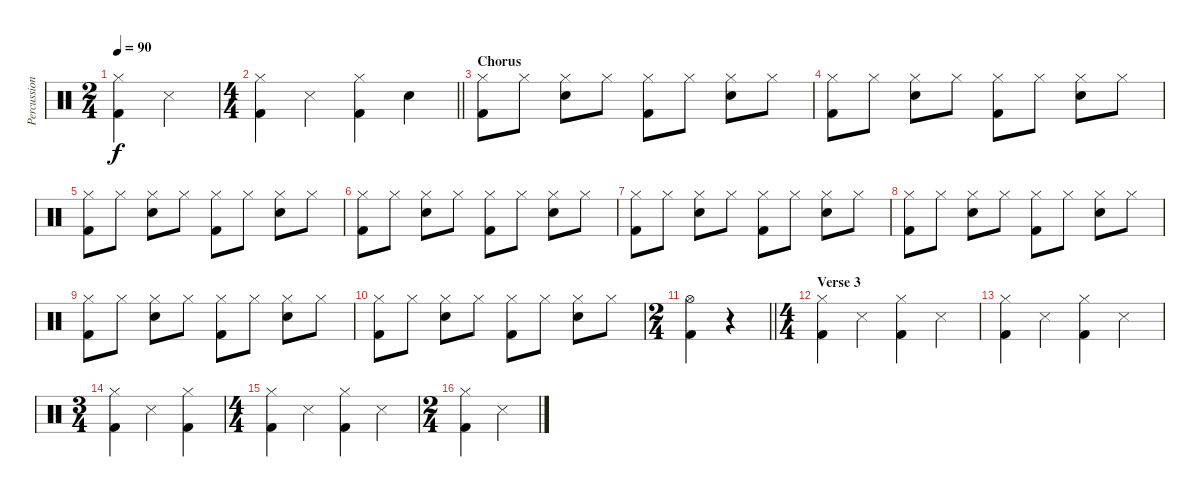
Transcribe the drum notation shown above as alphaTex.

\track ("Percussion" "Percussion") {instrument percussion}
\staff {score}
\articulation defaults
\ts (2 4)
\tempo 90
\clef neutral
\ks c
("Hi-Hat (closed)" "Kick (hit) 2").4{dy f} "Snare (side stick) 3".4 |
\ts (4 4)
\barLineRight lightlight
("Hi-Hat (closed)" "Kick (hit) 2").4 "Snare (side stick) 3".4 ("Hi-Hat (closed)" "Kick (hit) 2").4 "Snare (hit) 2".4 |
\section ("" "Chorus")
("Hi-Hat (closed)" "Kick (hit) 2").8 "Hi-Hat (closed)".8 ("Hi-Hat (closed)" "Snare (hit) 2").8 "Hi-Hat (closed)".8 ("Hi-Hat (closed)" "Kick (hit) 2").8 "Hi-Hat (closed)".8 ("Hi-Hat (closed)" "Snare (hit) 2").8 "Hi-Hat (closed)".8 |
("Hi-Hat (closed)" "Kick (hit) 2").8 "Hi-Hat (closed)".8 ("Hi-Hat (closed)" "Snare (hit) 2").8 "Hi-Hat (closed)".8 ("Hi-Hat (closed)" "Kick (hit) 2").8 "Hi-Hat (closed)".8 ("Hi-Hat (closed)" "Snare (hit) 2").8 "Hi-Hat (closed)".8 |
("Hi-Hat (closed)" "Kick (hit) 2").8 "Hi-Hat (closed)".8 ("Hi-Hat (closed)" "Snare (hit) 2").8 "Hi-Hat (closed)".8 ("Hi-Hat (closed)" "Kick (hit) 2").8 "Hi-Hat (closed)".8 ("Hi-Hat (closed)" "Snare (hit) 2").8 "Hi-Hat (closed)".8 |
("Hi-Hat (closed)" "Kick (hit) 2").8 "Hi-Hat (closed)".8 ("Hi-Hat (closed)" "Snare (hit) 2").8 "Hi-Hat (closed)".8 ("Hi-Hat (closed)" "Kick (hit) 2").8 "Hi-Hat (closed)".8 ("Hi-Hat (closed)" "Snare (hit) 2").8 "Hi-Hat (closed)".8 |
("Hi-Hat (closed)" "Kick (hit) 2").8 "Hi-Hat (closed)".8 ("Hi-Hat (closed)" "Snare (hit) 2").8 "Hi-Hat (closed)".8 ("Hi-Hat (closed)" "Kick (hit) 2").8 "Hi-Hat (closed)".8 ("Hi-Hat (closed)" "Snare (hit) 2").8 "Hi-Hat (closed)".8 |
("Hi-Hat (closed)" "Kick (hit) 2").8 "Hi-Hat (closed)".8 ("Hi-Hat (closed)" "Snare (hit) 2").8 "Hi-Hat (closed)".8 ("Hi-Hat (closed)" "Kick (hit) 2").8 "Hi-Hat (closed)".8 ("Hi-Hat (closed)" "Snare (hit) 2").8 "Hi-Hat (closed)".8 |
("Hi-Hat (closed)" "Kick (hit) 2").8 "Hi-Hat (closed)".8 ("Hi-Hat (closed)" "Snare (hit) 2").8 "Hi-Hat (closed)".8 ("Hi-Hat (closed)" "Kick (hit) 2").8 "Hi-Hat (closed)".8 ("Hi-Hat (closed)" "Snare (hit) 2").8 "Hi-Hat (closed)".8 |
("Hi-Hat (closed)" "Kick (hit) 2").8 "Hi-Hat (closed)".8 ("Hi-Hat (closed)" "Snare (hit) 2").8 "Hi-Hat (closed)".8 ("Hi-Hat (closed)" "Kick (hit) 2").8 "Hi-Hat (closed)".8 ("Hi-Hat (closed)" "Snare (hit) 2").8 "Hi-Hat (closed)".8 |
\ts (2 4)
\barLineRight lightlight
("Hi-Hat (open)" "Kick (hit) 2").4 r.4 |
\ts (4 4)
\section ("" "Verse 3")
("Hi-Hat (closed)" "Kick (hit) 2").4 "Snare (side stick) 3".4 ("Hi-Hat (closed)" "Kick (hit) 2").4 "Snare (side stick) 3".4 |
("Hi-Hat (closed)" "Kick (hit) 2").4 "Snare (side stick) 3".4 ("Hi-Hat (closed)" "Kick (hit) 2").4 "Snare (side stick) 3".4 |
\ts (3 4)
("Hi-Hat (closed)" "Kick (hit) 2").4 "Snare (side stick) 3".4 ("Hi-Hat (closed)" "Kick (hit) 2").4 |
\ts (4 4)
("Hi-Hat (closed)" "Kick (hit) 2").4 "Snare (side stick) 3".4 ("Hi-Hat (closed)" "Kick (hit) 2").4 "Snare (side stick) 3".4 |
\ts (2 4)
("Hi-Hat (closed)" "Kick (hit) 2").4 "Snare (side stick) 3".4
